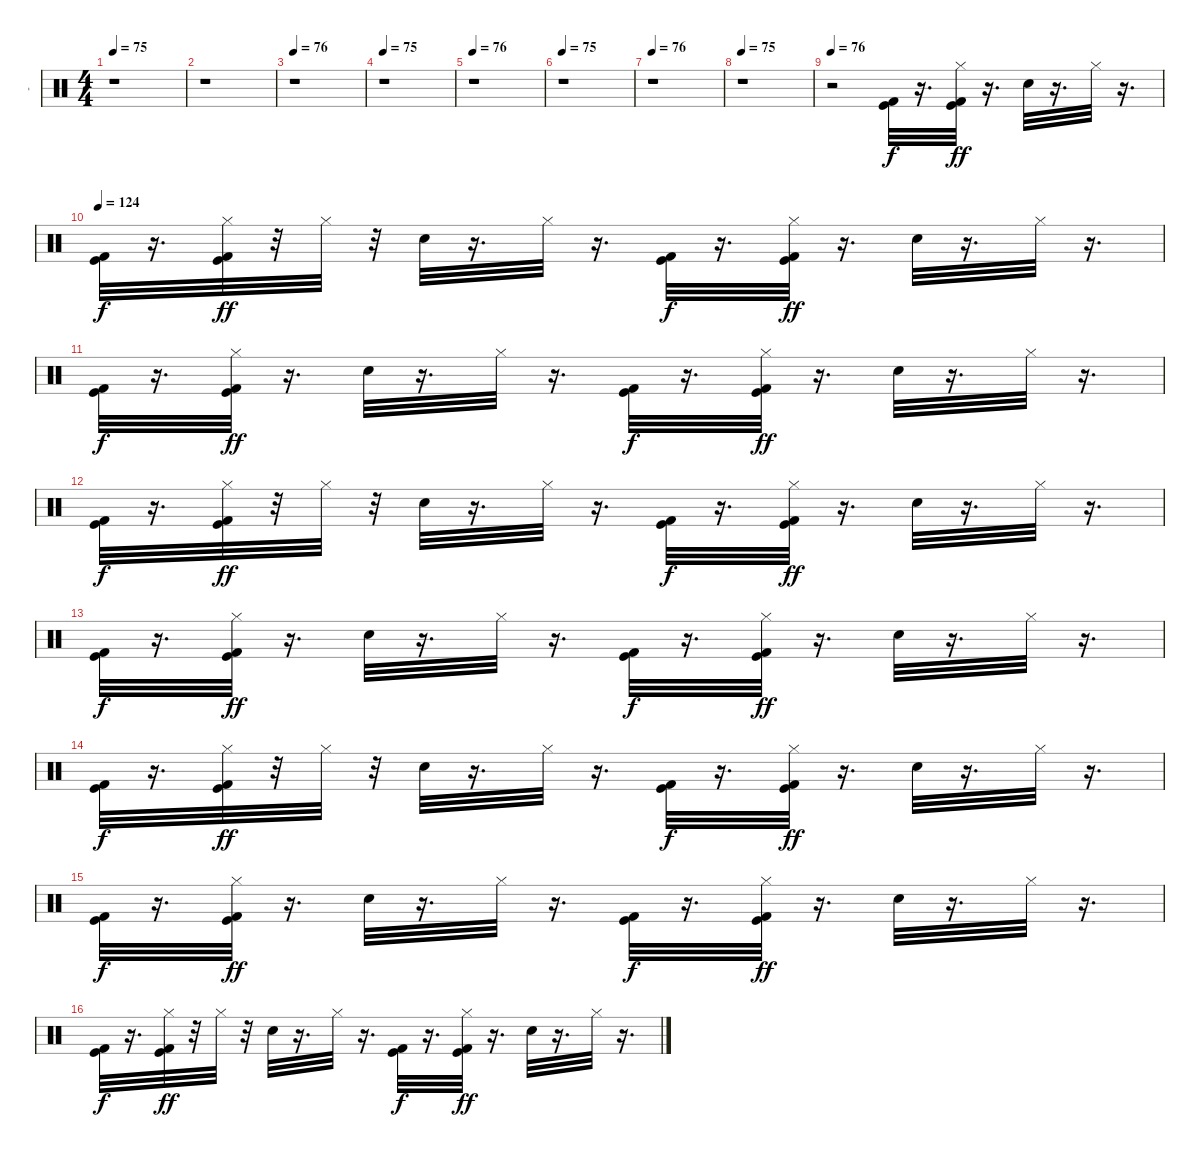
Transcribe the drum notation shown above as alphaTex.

\track ("-" "-") {instrument percussion}
\staff {score}
\articulation defaults
\ts (4 4)
\tempo 75
\clef neutral
\ks c
r.1{dy f} |
r.1 |
\tempo 76
r.1 |
\tempo 75
r.1 |
\tempo 76
r.1 |
\tempo 75
r.1 |
\tempo 76
r.1 |
\tempo 75
r.1 |
\tempo 76
r.2 ("Kick (hit)" "Kick (hit) 2").32 r.16{d} ("Kick (hit)" "Kick (hit) 2" "Hi-Hat (closed)").32{dy ff} r.16{d} "Snare (hit) 2".32 r.16{d} "Hi-Hat (closed)".32 r.16{d} |
\tempo 124
("Kick (hit)" "Kick (hit) 2").32{dy f} r.16{d} ("Kick (hit)" "Kick (hit) 2" "Hi-Hat (closed)").32{dy ff} r.32 "Hi-Hat (closed)".32 r.32 "Snare (hit) 2".32 r.16{d} "Hi-Hat (closed)".32 r.16{d} ("Kick (hit)" "Kick (hit) 2").32{dy f} r.16{d} ("Kick (hit)" "Kick (hit) 2" "Hi-Hat (closed)").32{dy ff} r.16{d} "Snare (hit) 2".32 r.16{d} "Hi-Hat (closed)".32 r.16{d} |
("Kick (hit)" "Kick (hit) 2").32{dy f} r.16{d} ("Kick (hit)" "Kick (hit) 2" "Hi-Hat (closed)").32{dy ff} r.16{d} "Snare (hit) 2".32 r.16{d} "Hi-Hat (closed)".32 r.16{d} ("Kick (hit)" "Kick (hit) 2").32{dy f} r.16{d} ("Kick (hit)" "Kick (hit) 2" "Hi-Hat (closed)").32{dy ff} r.16{d} "Snare (hit) 2".32 r.16{d} "Hi-Hat (closed)".32 r.16{d} |
("Kick (hit)" "Kick (hit) 2").32{dy f} r.16{d} ("Kick (hit)" "Kick (hit) 2" "Hi-Hat (closed)").32{dy ff} r.32 "Hi-Hat (closed)".32 r.32 "Snare (hit) 2".32 r.16{d} "Hi-Hat (closed)".32 r.16{d} ("Kick (hit)" "Kick (hit) 2").32{dy f} r.16{d} ("Kick (hit)" "Kick (hit) 2" "Hi-Hat (closed)").32{dy ff} r.16{d} "Snare (hit) 2".32 r.16{d} "Hi-Hat (closed)".32 r.16{d} |
("Kick (hit)" "Kick (hit) 2").32{dy f} r.16{d} ("Kick (hit)" "Kick (hit) 2" "Hi-Hat (closed)").32{dy ff} r.16{d} "Snare (hit) 2".32 r.16{d} "Hi-Hat (closed)".32 r.16{d} ("Kick (hit)" "Kick (hit) 2").32{dy f} r.16{d} ("Kick (hit)" "Kick (hit) 2" "Hi-Hat (closed)").32{dy ff} r.16{d} "Snare (hit) 2".32 r.16{d} "Hi-Hat (closed)".32 r.16{d} |
("Kick (hit)" "Kick (hit) 2").32{dy f} r.16{d} ("Kick (hit)" "Kick (hit) 2" "Hi-Hat (closed)").32{dy ff} r.32 "Hi-Hat (closed)".32 r.32 "Snare (hit) 2".32 r.16{d} "Hi-Hat (closed)".32 r.16{d} ("Kick (hit)" "Kick (hit) 2").32{dy f} r.16{d} ("Kick (hit)" "Kick (hit) 2" "Hi-Hat (closed)").32{dy ff} r.16{d} "Snare (hit) 2".32 r.16{d} "Hi-Hat (closed)".32 r.16{d} |
("Kick (hit)" "Kick (hit) 2").32{dy f} r.16{d} ("Kick (hit)" "Kick (hit) 2" "Hi-Hat (closed)").32{dy ff} r.16{d} "Snare (hit) 2".32 r.16{d} "Hi-Hat (closed)".32 r.16{d} ("Kick (hit)" "Kick (hit) 2").32{dy f} r.16{d} ("Kick (hit)" "Kick (hit) 2" "Hi-Hat (closed)").32{dy ff} r.16{d} "Snare (hit) 2".32 r.16{d} "Hi-Hat (closed)".32 r.16{d} |
("Kick (hit)" "Kick (hit) 2").32{dy f} r.16{d} ("Kick (hit)" "Kick (hit) 2" "Hi-Hat (closed)").32{dy ff} r.32 "Hi-Hat (closed)".32 r.32 "Snare (hit) 2".32 r.16{d} "Hi-Hat (closed)".32 r.16{d} ("Kick (hit)" "Kick (hit) 2").32{dy f} r.16{d} ("Kick (hit)" "Kick (hit) 2" "Hi-Hat (closed)").32{dy ff} r.16{d} "Snare (hit) 2".32 r.16{d} "Hi-Hat (closed)".32 r.16{d}
